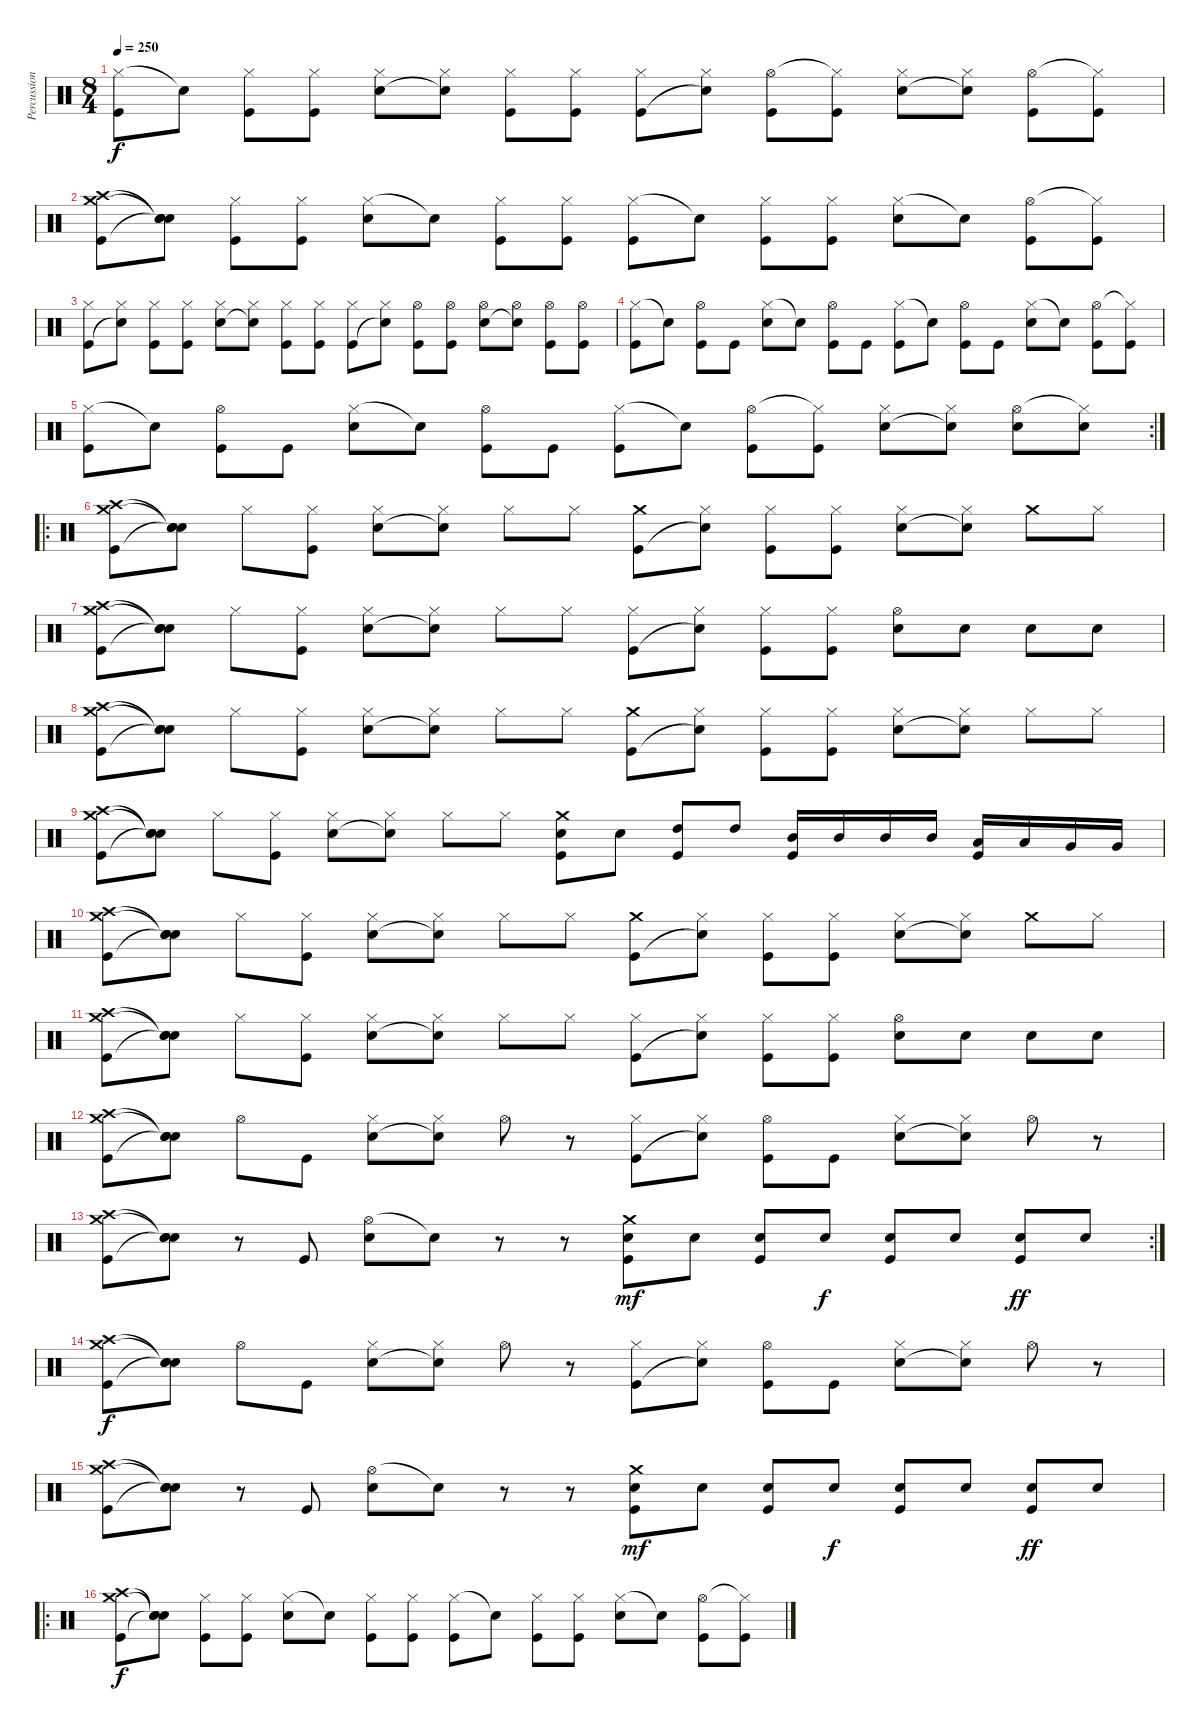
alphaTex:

\track ("Percussion" "Percussion") {instrument percussion}
\staff {score}
\articulation defaults
\ts (8 4)
\tempo 250
\clef neutral
\ks c
("Hi-Hat (closed)" "Kick (hit)").8{dy f} "Snare (hit)"{t}.8 ("Hi-Hat (closed)" "Kick (hit)").8 ("Hi-Hat (closed)" "Kick (hit)").8 ("Hi-Hat (closed)" "Snare (hit) 2").8 ("Hi-Hat (closed)" "Snare (hit)"{t}).8 ("Hi-Hat (closed)" "Kick (hit)").8 ("Hi-Hat (closed)" "Kick (hit)").8 ("Hi-Hat (closed)" "Kick (hit)").8 ("Hi-Hat (closed)" "Snare (hit)"{t}).8 ("Hi-Hat (open)" "Kick (hit)").8 ("Hi-Hat (closed)"{t} "Kick (hit)").8 ("Hi-Hat (closed)" "Snare (hit) 2").8 ("Hi-Hat (closed)" "Snare (hit)"{t}).8 ("Hi-Hat (open)" "Kick (hit)").8 ("Hi-Hat (closed)"{t} "Kick (hit)").8 |
("Crash medium (hit)" "Crash high (hit)" "Kick (hit)").8 ("Snare (hit)"{t} "Snare (hit)"{t} "Snare (hit)"{t}).8 ("Hi-Hat (closed)" "Kick (hit)").8 ("Hi-Hat (closed)" "Kick (hit)").8 ("Hi-Hat (closed)" "Snare (hit) 2").8 "Snare (hit)"{t}.8 ("Hi-Hat (closed)" "Kick (hit)").8 ("Hi-Hat (closed)" "Kick (hit)").8 ("Hi-Hat (closed)" "Kick (hit)").8 "Snare (hit)"{t}.8 ("Hi-Hat (closed)" "Kick (hit)").8 ("Hi-Hat (closed)" "Kick (hit)").8 ("Hi-Hat (closed)" "Snare (hit) 2").8 "Snare (hit)"{t}.8 ("Hi-Hat (open)" "Kick (hit)").8 ("Hi-Hat (closed)"{t} "Kick (hit)").8 |
("Hi-Hat (closed)" "Kick (hit)").8 ("Hi-Hat (closed)" "Snare (hit)"{t}).8 ("Hi-Hat (closed)" "Kick (hit)").8 ("Hi-Hat (closed)" "Kick (hit)").8 ("Hi-Hat (closed)" "Snare (hit) 2").8 ("Hi-Hat (closed)" "Snare (hit)"{t}).8 ("Hi-Hat (closed)" "Kick (hit)").8 ("Hi-Hat (closed)" "Kick (hit)").8 ("Hi-Hat (closed)" "Kick (hit)").8 ("Hi-Hat (closed)" "Snare (hit)"{t}).8 ("Hi-Hat (open)" "Kick (hit)").8 ("Hi-Hat (open)" "Kick (hit)").8 ("Hi-Hat (open)" "Snare (hit) 2").8 ("Hi-Hat (open)" "Snare (hit)"{t}).8 ("Hi-Hat (open)" "Kick (hit)").8 ("Hi-Hat (open)" "Kick (hit)").8 |
("Hi-Hat (closed)" "Kick (hit)").8 "Snare (hit)"{t}.8 ("Hi-Hat (open)" "Kick (hit)").8 "Kick (hit)".8 ("Hi-Hat (closed)" "Snare (hit) 2").8 "Snare (hit)"{t}.8 ("Hi-Hat (open)" "Kick (hit)").8 "Kick (hit)".8 ("Hi-Hat (closed)" "Kick (hit)").8 "Snare (hit)"{t}.8 ("Hi-Hat (open)" "Kick (hit)").8 "Kick (hit)".8 ("Hi-Hat (closed)" "Snare (hit) 2").8 "Snare (hit)"{t}.8 ("Hi-Hat (open)" "Kick (hit)").8 ("Hi-Hat (closed)"{t} "Kick (hit)").8 |
\rc 2
("Hi-Hat (closed)" "Kick (hit)").8 "Snare (hit)"{t}.8 ("Hi-Hat (open)" "Kick (hit)").8 "Kick (hit)".8 ("Hi-Hat (closed)" "Snare (hit) 2").8 "Snare (hit)"{t}.8 ("Hi-Hat (open)" "Kick (hit)").8 "Kick (hit)".8 ("Hi-Hat (closed)" "Kick (hit)").8 "Snare (hit)"{t}.8 ("Hi-Hat (open)" "Kick (hit)").8 ("Hi-Hat (closed)"{t} "Kick (hit)").8 ("Hi-Hat (closed)" "Snare (hit) 2").8 ("Hi-Hat (closed)" "Snare (hit)"{t}).8 ("Hi-Hat (open)" "Snare (hit) 2").8 ("Hi-Hat (closed)"{t} "Snare (hit) 2").8 |
\ro
("Crash medium (hit)" "Crash high (hit)" "Kick (hit)").8 ("Snare (hit)"{t} "Snare (hit)"{t} "Snare (hit)"{t}).8 "Hi-Hat (closed)".8 ("Hi-Hat (closed)" "Kick (hit)").8 ("Hi-Hat (closed)" "Snare (hit) 2").8 ("Hi-Hat (closed)" "Snare (hit)"{t}).8 "Hi-Hat (closed)".8 "Hi-Hat (closed)".8 ("Crash medium (hit)" "Kick (hit)").8 ("Hi-Hat (closed)" "Snare (hit)"{t}).8 ("Hi-Hat (closed)" "Kick (hit)").8 ("Hi-Hat (closed)" "Kick (hit)").8 ("Hi-Hat (closed)" "Snare (hit) 2").8 ("Hi-Hat (closed)" "Snare (hit)"{t}).8 "Crash medium (hit)".8 "Hi-Hat (closed)".8 |
("Crash medium (hit)" "Crash high (hit)" "Kick (hit)").8 ("Snare (hit)"{t} "Snare (hit)"{t} "Snare (hit)"{t}).8 "Hi-Hat (closed)".8 ("Hi-Hat (closed)" "Kick (hit)").8 ("Hi-Hat (closed)" "Snare (hit) 2").8 ("Hi-Hat (closed)" "Snare (hit)"{t}).8 "Hi-Hat (closed)".8 "Hi-Hat (closed)".8 ("Hi-Hat (closed)" "Kick (hit)").8 ("Hi-Hat (closed)" "Snare (hit)"{t}).8 ("Hi-Hat (closed)" "Kick (hit)").8 ("Hi-Hat (closed)" "Kick (hit)").8 ("Hi-Hat (open)" "Snare (hit) 2").8 "Snare (hit) 2".8 "Snare (hit) 2".8 "Snare (hit) 2".8 |
("Crash medium (hit)" "Crash high (hit)" "Kick (hit)").8 ("Snare (hit)"{t} "Snare (hit)"{t} "Snare (hit)"{t}).8 "Hi-Hat (closed)".8 ("Hi-Hat (closed)" "Kick (hit)").8 ("Hi-Hat (closed)" "Snare (hit) 2").8 ("Hi-Hat (closed)" "Snare (hit)"{t}).8 "Hi-Hat (closed)".8 "Hi-Hat (closed)".8 ("Crash medium (hit)" "Kick (hit)").8 ("Hi-Hat (closed)" "Snare (hit)"{t}).8 ("Hi-Hat (closed)" "Kick (hit)").8 ("Hi-Hat (closed)" "Kick (hit)").8 ("Hi-Hat (closed)" "Snare (hit) 2").8 ("Hi-Hat (closed)" "Snare (hit)"{t}).8 "Hi-Hat (closed)".8 "Hi-Hat (closed)".8 |
("Crash medium (hit)" "Crash high (hit)" "Kick (hit)").8 ("Snare (hit)"{t} "Snare (hit)"{t} "Snare (hit)"{t}).8 "Hi-Hat (closed)".8 ("Hi-Hat (closed)" "Kick (hit)").8 ("Hi-Hat (closed)" "Snare (hit) 2").8 ("Hi-Hat (closed)" "Snare (hit)"{t}).8 "Hi-Hat (closed)".8 "Hi-Hat (closed)".8 ("Crash medium (hit)" "Snare (hit) 2" "Kick (hit)").8 "Snare (hit) 2".8 ("High Tom (hit)" "Kick (hit)").8 "High Tom (hit)".8 ("Mid Tom (hit)" "Kick (hit)").16 "Mid Tom (hit)".16 "Mid Tom (hit)".16 "Mid Tom (hit)".16 ("Low Tom (hit)" "Kick (hit)").16 "Low Tom (hit)".16 "Very Low Tom (hit)".16 "Very Low Tom (hit)".16 |
("Crash medium (hit)" "Crash high (hit)" "Kick (hit)").8 ("Snare (hit)"{t} "Snare (hit)"{t} "Snare (hit)"{t}).8 "Hi-Hat (closed)".8 ("Hi-Hat (closed)" "Kick (hit)").8 ("Hi-Hat (closed)" "Snare (hit) 2").8 ("Hi-Hat (closed)" "Snare (hit)"{t}).8 "Hi-Hat (closed)".8 "Hi-Hat (closed)".8 ("Crash medium (hit)" "Kick (hit)").8 ("Hi-Hat (closed)" "Snare (hit)"{t}).8 ("Hi-Hat (closed)" "Kick (hit)").8 ("Hi-Hat (closed)" "Kick (hit)").8 ("Hi-Hat (closed)" "Snare (hit) 2").8 ("Hi-Hat (closed)" "Snare (hit)"{t}).8 "Crash medium (hit)".8 "Hi-Hat (closed)".8 |
("Crash medium (hit)" "Crash high (hit)" "Kick (hit)").8 ("Snare (hit)"{t} "Snare (hit)"{t} "Snare (hit)"{t}).8 "Hi-Hat (closed)".8 ("Hi-Hat (closed)" "Kick (hit)").8 ("Hi-Hat (closed)" "Snare (hit) 2").8 ("Hi-Hat (closed)" "Snare (hit)"{t}).8 "Hi-Hat (closed)".8 "Hi-Hat (closed)".8 ("Hi-Hat (closed)" "Kick (hit)").8 ("Hi-Hat (closed)" "Snare (hit)"{t}).8 ("Hi-Hat (closed)" "Kick (hit)").8 ("Hi-Hat (closed)" "Kick (hit)").8 ("Hi-Hat (open)" "Snare (hit) 2").8 "Snare (hit) 2".8 "Snare (hit) 2".8 "Snare (hit) 2".8 |
("Crash medium (hit)" "Crash high (hit)" "Kick (hit)").8 ("Snare (hit)"{t} "Snare (hit)"{t} "Snare (hit)"{t}).8 "Hi-Hat (open)".8 "Kick (hit)".8 ("Hi-Hat (closed)" "Snare (hit) 2").8 ("Hi-Hat (closed)" "Snare (hit)"{t}).8 "Hi-Hat (open)".8 r.8 ("Hi-Hat (closed)" "Kick (hit)").8 ("Hi-Hat (closed)" "Snare (hit)"{t}).8 ("Hi-Hat (open)" "Kick (hit)").8 "Kick (hit)".8 ("Hi-Hat (closed)" "Snare (hit) 2").8 ("Hi-Hat (closed)" "Snare (hit)"{t}).8 "Hi-Hat (open)".8 r.8 |
\rc 2
("Crash medium (hit)" "Crash high (hit)" "Kick (hit)").8 ("Snare (hit)"{t} "Snare (hit)"{t} "Snare (hit)"{t}).8 r.8 "Kick (hit)".8 ("Hi-Hat (open)" "Snare (hit) 2").8 "Snare (hit)"{t}.8 r.8 r.8 ("Crash medium (hit)" "Snare (hit) 2" "Kick (hit)").8{dy mf} "Snare (hit) 2".8 ("Snare (hit) 2" "Kick (hit)").8 "Snare (hit) 2".8{dy f} ("Snare (hit) 2" "Kick (hit)").8 "Snare (hit) 2".8 ("Snare (hit) 2" "Kick (hit)").8{dy ff} "Snare (hit) 2".8 |
("Crash medium (hit)" "Crash high (hit)" "Kick (hit)").8{dy f} ("Snare (hit)"{t} "Snare (hit)"{t} "Snare (hit)"{t}).8 "Hi-Hat (open)".8 "Kick (hit)".8 ("Hi-Hat (closed)" "Snare (hit) 2").8 ("Hi-Hat (closed)" "Snare (hit)"{t}).8 "Hi-Hat (open)".8 r.8 ("Hi-Hat (closed)" "Kick (hit)").8 ("Hi-Hat (closed)" "Snare (hit)"{t}).8 ("Hi-Hat (open)" "Kick (hit)").8 "Kick (hit)".8 ("Hi-Hat (closed)" "Snare (hit) 2").8 ("Hi-Hat (closed)" "Snare (hit)"{t}).8 "Hi-Hat (open)".8 r.8 |
("Crash medium (hit)" "Crash high (hit)" "Kick (hit)").8 ("Snare (hit)"{t} "Snare (hit)"{t} "Snare (hit)"{t}).8 r.8 "Kick (hit)".8 ("Hi-Hat (open)" "Snare (hit) 2").8 "Snare (hit)"{t}.8 r.8 r.8 ("Crash medium (hit)" "Snare (hit) 2" "Kick (hit)").8{dy mf} "Snare (hit) 2".8 ("Snare (hit) 2" "Kick (hit)").8 "Snare (hit) 2".8{dy f} ("Snare (hit) 2" "Kick (hit)").8 "Snare (hit) 2".8 ("Snare (hit) 2" "Kick (hit)").8{dy ff} "Snare (hit) 2".8 |
\ro
("Crash medium (hit)" "Crash high (hit)" "Kick (hit)").8{dy f} ("Snare (hit)"{t} "Snare (hit)"{t} "Snare (hit)"{t}).8 ("Hi-Hat (closed)" "Kick (hit)").8 ("Hi-Hat (closed)" "Kick (hit)").8 ("Hi-Hat (closed)" "Snare (hit) 2").8 "Snare (hit)"{t}.8 ("Hi-Hat (closed)" "Kick (hit)").8 ("Hi-Hat (closed)" "Kick (hit)").8 ("Hi-Hat (closed)" "Kick (hit)").8 "Snare (hit)"{t}.8 ("Hi-Hat (closed)" "Kick (hit)").8 ("Hi-Hat (closed)" "Kick (hit)").8 ("Hi-Hat (closed)" "Snare (hit) 2").8 "Snare (hit)"{t}.8 ("Hi-Hat (open)" "Kick (hit)").8 ("Hi-Hat (closed)"{t} "Kick (hit)").8
